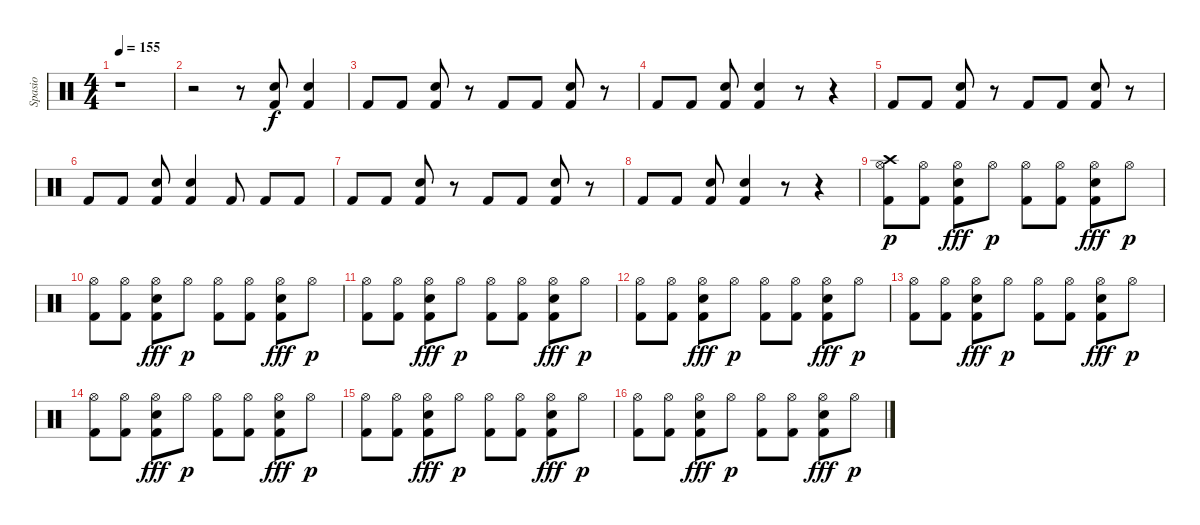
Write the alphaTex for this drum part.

\track ("Spasio" "Spasio") {instrument percussion}
\staff {score}
\articulation defaults
\ts (4 4)
\tempo 155
\clef neutral
\ks c
r.1{dy f} |
r.2 r.8 ("Electric Snare (hit)" "Kick (hit) 2").8 ("Electric Snare (hit)" "Kick (hit) 2").4 |
"Kick (hit) 2".8 "Kick (hit) 2".8 ("Electric Snare (hit)" "Kick (hit) 2").8 r.8 "Kick (hit) 2".8 "Kick (hit) 2".8 ("Electric Snare (hit)" "Kick (hit) 2").8 r.8 |
"Kick (hit) 2".8 "Kick (hit) 2".8 ("Electric Snare (hit)" "Kick (hit) 2").8 ("Electric Snare (hit)" "Kick (hit) 2").4 r.8 r.4 |
"Kick (hit) 2".8 "Kick (hit) 2".8 ("Electric Snare (hit)" "Kick (hit) 2").8 r.8 "Kick (hit) 2".8 "Kick (hit) 2".8 ("Electric Snare (hit)" "Kick (hit) 2").8 r.8 |
"Kick (hit) 2".8 "Kick (hit) 2".8 ("Electric Snare (hit)" "Kick (hit) 2").8 ("Electric Snare (hit)" "Kick (hit) 2").4 "Kick (hit) 2".8 "Kick (hit) 2".8 "Kick (hit) 2".8 |
"Kick (hit) 2".8 "Kick (hit) 2".8 ("Electric Snare (hit)" "Kick (hit) 2").8 r.8 "Kick (hit) 2".8 "Kick (hit) 2".8 ("Electric Snare (hit)" "Kick (hit) 2").8 r.8 |
"Kick (hit) 2".8 "Kick (hit) 2".8 ("Electric Snare (hit)" "Kick (hit) 2").8 ("Electric Snare (hit)" "Kick (hit) 2").4 r.8 r.4 |
("Crash high (hit)" "Hi-Hat (open)" "Kick (hit) 2").8{dy p} ("Hi-Hat (open)" "Kick (hit) 2").8 ("Hi-Hat (open)" "Electric Snare (hit)" "Kick (hit) 2").8{dy fff} "Hi-Hat (open)".8{dy p} ("Hi-Hat (open)" "Kick (hit) 2").8 ("Hi-Hat (open)" "Kick (hit) 2").8 ("Hi-Hat (open)" "Electric Snare (hit)" "Kick (hit) 2").8{dy fff} "Hi-Hat (open)".8{dy p} |
("Hi-Hat (open)" "Kick (hit) 2").8 ("Hi-Hat (open)" "Kick (hit) 2").8 ("Hi-Hat (open)" "Electric Snare (hit)" "Kick (hit) 2").8{dy fff} "Hi-Hat (open)".8{dy p} ("Hi-Hat (open)" "Kick (hit) 2").8 ("Hi-Hat (open)" "Kick (hit) 2").8 ("Hi-Hat (open)" "Electric Snare (hit)" "Kick (hit) 2").8{dy fff} "Hi-Hat (open)".8{dy p} |
("Hi-Hat (open)" "Kick (hit) 2").8 ("Hi-Hat (open)" "Kick (hit) 2").8 ("Hi-Hat (open)" "Electric Snare (hit)" "Kick (hit) 2").8{dy fff} "Hi-Hat (open)".8{dy p} ("Hi-Hat (open)" "Kick (hit) 2").8 ("Hi-Hat (open)" "Kick (hit) 2").8 ("Hi-Hat (open)" "Electric Snare (hit)" "Kick (hit) 2").8{dy fff} "Hi-Hat (open)".8{dy p} |
("Hi-Hat (open)" "Kick (hit) 2").8 ("Hi-Hat (open)" "Kick (hit) 2").8 ("Hi-Hat (open)" "Electric Snare (hit)" "Kick (hit) 2").8{dy fff} "Hi-Hat (open)".8{dy p} ("Hi-Hat (open)" "Kick (hit) 2").8 ("Hi-Hat (open)" "Kick (hit) 2").8 ("Hi-Hat (open)" "Electric Snare (hit)" "Kick (hit) 2").8{dy fff} "Hi-Hat (open)".8{dy p} |
("Hi-Hat (open)" "Kick (hit) 2").8 ("Hi-Hat (open)" "Kick (hit) 2").8 ("Hi-Hat (open)" "Electric Snare (hit)" "Kick (hit) 2").8{dy fff} "Hi-Hat (open)".8{dy p} ("Hi-Hat (open)" "Kick (hit) 2").8 ("Hi-Hat (open)" "Kick (hit) 2").8 ("Hi-Hat (open)" "Electric Snare (hit)" "Kick (hit) 2").8{dy fff} "Hi-Hat (open)".8{dy p} |
("Hi-Hat (open)" "Kick (hit) 2").8 ("Hi-Hat (open)" "Kick (hit) 2").8 ("Hi-Hat (open)" "Electric Snare (hit)" "Kick (hit) 2").8{dy fff} "Hi-Hat (open)".8{dy p} ("Hi-Hat (open)" "Kick (hit) 2").8 ("Hi-Hat (open)" "Kick (hit) 2").8 ("Hi-Hat (open)" "Electric Snare (hit)" "Kick (hit) 2").8{dy fff} "Hi-Hat (open)".8{dy p} |
("Hi-Hat (open)" "Kick (hit) 2").8 ("Hi-Hat (open)" "Kick (hit) 2").8 ("Hi-Hat (open)" "Electric Snare (hit)" "Kick (hit) 2").8{dy fff} "Hi-Hat (open)".8{dy p} ("Hi-Hat (open)" "Kick (hit) 2").8 ("Hi-Hat (open)" "Kick (hit) 2").8 ("Hi-Hat (open)" "Electric Snare (hit)" "Kick (hit) 2").8{dy fff} "Hi-Hat (open)".8{dy p} |
("Hi-Hat (open)" "Kick (hit) 2").8 ("Hi-Hat (open)" "Kick (hit) 2").8 ("Hi-Hat (open)" "Electric Snare (hit)" "Kick (hit) 2").8{dy fff} "Hi-Hat (open)".8{dy p} ("Hi-Hat (open)" "Kick (hit) 2").8 ("Hi-Hat (open)" "Kick (hit) 2").8 ("Hi-Hat (open)" "Electric Snare (hit)" "Kick (hit) 2").8{dy fff} "Hi-Hat (open)".8{dy p}
